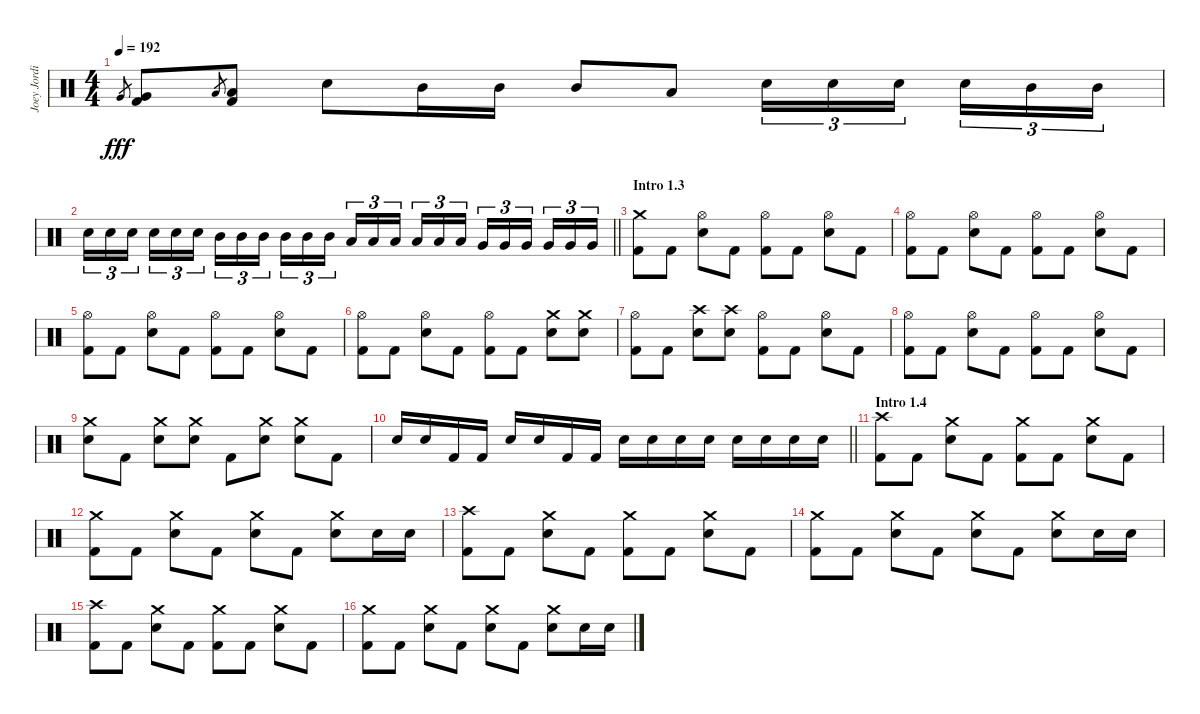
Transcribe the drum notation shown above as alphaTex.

\track ("Joey Jordison" "Joey Jordi") {instrument percussion}
\staff {score}
\articulation defaults
\ts (4 4)
\tempo 192
\clef neutral
\ks c "Very Low Tom (hit)".8{gr dy fff}
("Very Low Tom (hit)" "Kick (hit) 2").8 "Low Floor Tom (hit)".8{gr} ("Low Floor Tom (hit)" "Kick (hit) 2").8 "Electric Snare (hit)".8 "Mid Tom (hit)".16 "Mid Tom (hit)".16 "Mid Tom (hit)".8 "Low Tom (hit)".8 "Electric Snare (hit)".16{tu (3 2)} "Electric Snare (hit)".16{tu (3 2)} "Electric Snare (hit)".16{tu (3 2) beam splitsecondary} "Electric Snare (hit)".16{tu (3 2)} "Mid Tom (hit)".16{tu (3 2)} "Mid Tom (hit)".16{tu (3 2)} |
\barLineRight lightlight "Electric Snare (hit)".16{tu (3 2)} "Electric Snare (hit)".16{tu (3 2)} "Electric Snare (hit)".16{tu (3 2) beam splitsecondary} "Electric Snare (hit)".16{tu (3 2)} "Electric Snare (hit)".16{tu (3 2)} "Electric Snare (hit)".16{tu (3 2)} "Mid Tom (hit)".16{tu (3 2)} "Mid Tom (hit)".16{tu (3 2)} "Mid Tom (hit)".16{tu (3 2) beam splitsecondary} "Mid Tom (hit)".16{tu (3 2)} "Mid Tom (hit)".16{tu (3 2)} "Mid Tom (hit)".16{tu (3 2)} "Low Tom (hit)".16{tu (3 2)} "Low Tom (hit)".16{tu (3 2)} "Low Tom (hit)".16{tu (3 2) beam splitsecondary} "Low Tom (hit)".16{tu (3 2)} "Low Tom (hit)".16{tu (3 2)} "Low Tom (hit)".16{tu (3 2)} "Very Low Tom (hit)".16{tu (3 2)} "Very Low Tom (hit)".16{tu (3 2)} "Very Low Tom (hit)".16{tu (3 2) beam splitsecondary} "Very Low Tom (hit)".16{tu (3 2)} "Very Low Tom (hit)".16{tu (3 2)} "Very Low Tom (hit)".16{tu (3 2)}
|
\section ("" "Intro 1.3")
("Crash medium (hit)" "Kick (hit) 2").8 "Kick (hit) 2".8 ("Hi-Hat (open)" "Electric Snare (hit)").8 "Kick (hit) 2".8 ("Hi-Hat (open)" "Kick (hit) 2").8 "Kick (hit) 2".8 ("Hi-Hat (open)" "Electric Snare (hit)").8 "Kick (hit) 2".8 |
("Hi-Hat (open)" "Kick (hit) 2").8 "Kick (hit) 2".8 ("Hi-Hat (open)" "Electric Snare (hit)").8 "Kick (hit) 2".8 ("Hi-Hat (open)" "Kick (hit) 2").8 "Kick (hit) 2".8 ("Hi-Hat (open)" "Electric Snare (hit)").8 "Kick (hit) 2".8 |
("Hi-Hat (open)" "Kick (hit) 2").8 "Kick (hit) 2".8 ("Hi-Hat (open)" "Electric Snare (hit)").8 "Kick (hit) 2".8 ("Hi-Hat (open)" "Kick (hit) 2").8 "Kick (hit) 2".8 ("Hi-Hat (open)" "Electric Snare (hit)").8 "Kick (hit) 2".8 |
("Hi-Hat (open)" "Kick (hit) 2").8 "Kick (hit) 2".8 ("Hi-Hat (open)" "Electric Snare (hit)").8 "Kick (hit) 2".8 ("Hi-Hat (open)" "Kick (hit) 2").8 "Kick (hit) 2".8 ("Crash medium (hit)" "Electric Snare (hit)").8 ("Crash medium (hit)" "Electric Snare (hit)").8 |
("Hi-Hat (open)" "Kick (hit) 2").8 "Kick (hit) 2".8 ("Crash high (hit)" "Electric Snare (hit)").8 ("Crash high (hit)" "Electric Snare (hit)").8 ("Hi-Hat (open)" "Kick (hit) 2").8 "Kick (hit) 2".8 ("Hi-Hat (open)" "Electric Snare (hit)").8 "Kick (hit) 2".8 |
("Hi-Hat (open)" "Kick (hit) 2").8 "Kick (hit) 2".8 ("Hi-Hat (open)" "Electric Snare (hit)").8 "Kick (hit) 2".8 ("Hi-Hat (open)" "Kick (hit) 2").8 "Kick (hit) 2".8 ("Hi-Hat (open)" "Electric Snare (hit)").8 "Kick (hit) 2".8 |
("Crash medium (hit)" "Electric Snare (hit)").8 "Kick (hit) 2".8 ("Crash medium (hit)" "Electric Snare (hit)").8 ("Crash medium (hit)" "Electric Snare (hit)").8 "Kick (hit) 2".8 ("Crash medium (hit)" "Electric Snare (hit)").8 ("Crash medium (hit)" "Electric Snare (hit)").8 "Kick (hit) 2".8 |
\barLineRight lightlight "Electric Snare (hit)".16 "Electric Snare (hit)".16 "Kick (hit) 2".16 "Kick (hit) 2".16 "Electric Snare (hit)".16 "Electric Snare (hit)".16 "Kick (hit) 2".16 "Kick (hit) 2".16 "Electric Snare (hit)".16 "Electric Snare (hit)".16 "Electric Snare (hit)".16 "Electric Snare (hit)".16 "Electric Snare (hit)".16 "Electric Snare (hit)".16 "Electric Snare (hit)".16 "Electric Snare (hit)".16
|
\section ("" "Intro 1.4")
("Crash high (hit)" "Kick (hit) 2").8 "Kick (hit) 2".8 ("Crash medium (hit)" "Electric Snare (hit)").8 "Kick (hit) 2".8 ("Crash medium (hit)" "Kick (hit) 2").8 "Kick (hit) 2".8 ("Crash medium (hit)" "Electric Snare (hit)").8 "Kick (hit) 2".8 |
("Crash medium (hit)" "Kick (hit) 2").8 "Kick (hit) 2".8 ("Crash medium (hit)" "Electric Snare (hit)").8 "Kick (hit) 2".8 ("Crash medium (hit)" "Electric Snare (hit)").8 "Kick (hit) 2".8 ("Crash medium (hit)" "Electric Snare (hit)").8 "Electric Snare (hit)".16 "Electric Snare (hit)".16 |
("Crash high (hit)" "Kick (hit) 2").8 "Kick (hit) 2".8 ("Crash medium (hit)" "Electric Snare (hit)").8 "Kick (hit) 2".8 ("Crash medium (hit)" "Kick (hit) 2").8 "Kick (hit) 2".8 ("Crash medium (hit)" "Electric Snare (hit)").8 "Kick (hit) 2".8 |
("Crash medium (hit)" "Kick (hit) 2").8 "Kick (hit) 2".8 ("Crash medium (hit)" "Electric Snare (hit)").8 "Kick (hit) 2".8 ("Crash medium (hit)" "Electric Snare (hit)").8 "Kick (hit) 2".8 ("Crash medium (hit)" "Electric Snare (hit)").8 "Electric Snare (hit)".16 "Electric Snare (hit)".16 |
("Crash high (hit)" "Kick (hit) 2").8 "Kick (hit) 2".8 ("Crash medium (hit)" "Electric Snare (hit)").8 "Kick (hit) 2".8 ("Crash medium (hit)" "Kick (hit) 2").8 "Kick (hit) 2".8 ("Crash medium (hit)" "Electric Snare (hit)").8 "Kick (hit) 2".8 |
("Crash medium (hit)" "Kick (hit) 2").8 "Kick (hit) 2".8 ("Crash medium (hit)" "Electric Snare (hit)").8 "Kick (hit) 2".8 ("Crash medium (hit)" "Electric Snare (hit)").8 "Kick (hit) 2".8 ("Crash medium (hit)" "Electric Snare (hit)").8 "Electric Snare (hit)".16 "Electric Snare (hit)".16
